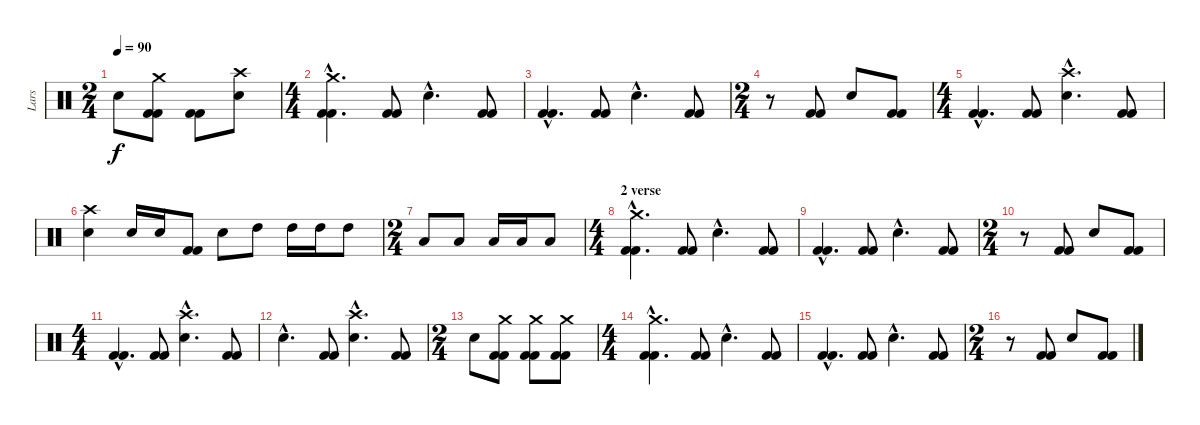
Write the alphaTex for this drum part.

\track ("Lars" "Lars") {instrument percussion}
\staff {score}
\articulation defaults
\ts (2 4)
\tempo 90
\clef neutral
\ks c "Snare (hit) 2".8{dy f}
("Crash medium (hit)" "Kick (hit) 2" "Kick (hit) 2").8 ("Kick (hit) 2" "Kick (hit) 2").8 ("Crash high (hit)" "Snare (hit) 2").8 |
\ts (4 4)
("Crash medium (hit)"{hac} "Kick (hit) 2"{hac} "Kick (hit) 2"{hac}).4{d} ("Kick (hit) 2" "Kick (hit) 2").8 "Snare (hit) 2"{hac}.4{d} ("Kick (hit) 2" "Kick (hit) 2").8 |
("Kick (hit) 2"{hac} "Kick (hit) 2"{hac}).4{d} ("Kick (hit) 2" "Kick (hit) 2").8 "Snare (hit) 2"{hac}.4{d} ("Kick (hit) 2" "Kick (hit) 2").8 |
\ts (2 4)
r.8 ("Kick (hit) 2" "Kick (hit) 2").8 "Snare (hit) 2".8 ("Kick (hit) 2" "Kick (hit) 2").8 |
\ts (4 4)
("Kick (hit) 2"{hac} "Kick (hit) 2"{hac}).4{d} ("Kick (hit) 2" "Kick (hit) 2").8 ("Snare (hit) 2"{hac} "Crash high (hit)"{hac}).4{d} ("Kick (hit) 2" "Kick (hit) 2").8 |
("Snare (hit) 2" "Crash high (hit)").4 "Snare (hit) 2".16 "Snare (hit) 2".16 ("Kick (hit) 2" "Kick (hit) 2").8 "Snare (hit) 2".8 "High Tom (hit)".8 "High Tom (hit)".16 "High Tom (hit)".16 "High Tom (hit)".8 |
\ts (2 4)
"Low Floor Tom (hit)".8 "Low Floor Tom (hit)".8 "Low Floor Tom (hit)".16 "Low Floor Tom (hit)".16 "Low Floor Tom (hit)".8 |
\ts (4 4)
\section ("" "2 verse")
("Crash medium (hit)"{hac} "Kick (hit) 2"{hac} "Kick (hit) 2"{hac}).4{d} ("Kick (hit) 2" "Kick (hit) 2").8 "Snare (hit) 2"{hac}.4{d} ("Kick (hit) 2" "Kick (hit) 2").8 |
("Kick (hit) 2"{hac} "Kick (hit) 2"{hac}).4{d} ("Kick (hit) 2" "Kick (hit) 2").8 "Snare (hit) 2"{hac}.4{d} ("Kick (hit) 2" "Kick (hit) 2").8 |
\ts (2 4)
r.8 ("Kick (hit) 2" "Kick (hit) 2").8 "Snare (hit) 2".8 ("Kick (hit) 2" "Kick (hit) 2").8 |
\ts (4 4)
("Kick (hit) 2"{hac} "Kick (hit) 2"{hac}).4{d} ("Kick (hit) 2" "Kick (hit) 2").8 ("Snare (hit) 2"{hac} "Crash high (hit)"{hac}).4{d} ("Kick (hit) 2" "Kick (hit) 2").8 |
"Snare (hit) 2"{hac}.4{d} ("Kick (hit) 2" "Kick (hit) 2").8 ("Snare (hit) 2"{hac} "Crash high (hit)"{hac}).4{d} ("Kick (hit) 2" "Kick (hit) 2").8 |
\ts (2 4)
"Snare (hit) 2".8 ("Crash medium (hit)" "Kick (hit) 2" "Kick (hit) 2").8 ("Crash medium (hit)" "Kick (hit) 2" "Kick (hit) 2").8 ("Crash medium (hit)" "Kick (hit) 2" "Kick (hit) 2").8 |
\ts (4 4)
("Crash medium (hit)"{hac} "Kick (hit) 2"{hac} "Kick (hit) 2"{hac}).4{d} ("Kick (hit) 2" "Kick (hit) 2").8 "Snare (hit) 2"{hac}.4{d} ("Kick (hit) 2" "Kick (hit) 2").8 |
("Kick (hit) 2"{hac} "Kick (hit) 2"{hac}).4{d} ("Kick (hit) 2" "Kick (hit) 2").8 "Snare (hit) 2"{hac}.4{d} ("Kick (hit) 2" "Kick (hit) 2").8 |
\ts (2 4)
r.8 ("Kick (hit) 2" "Kick (hit) 2").8 "Snare (hit) 2".8 ("Kick (hit) 2" "Kick (hit) 2").8
